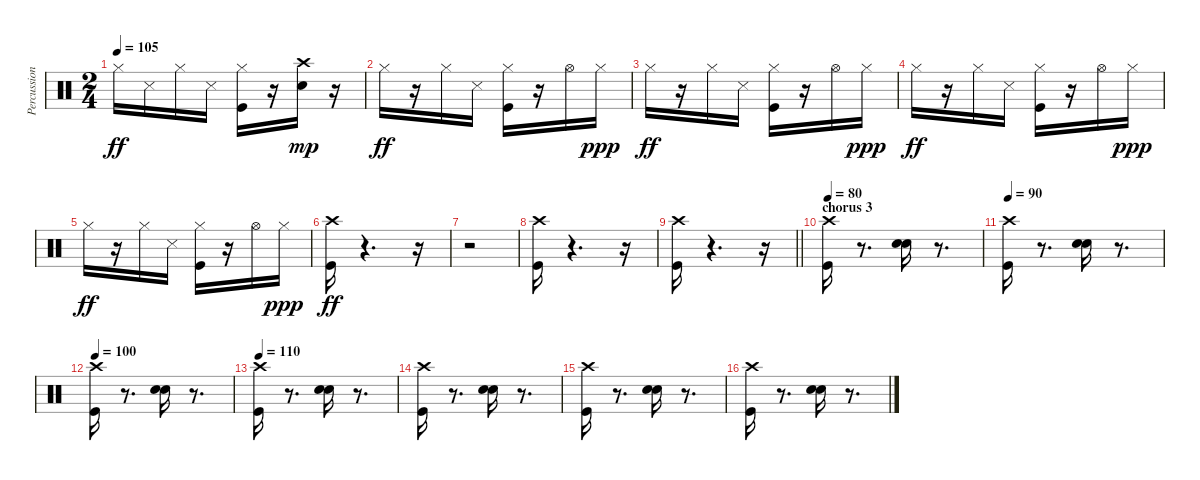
\track ("Percussion" "Percussion") {instrument percussion}
\staff {score}
\articulation defaults
\ts (2 4)
\tempo 105
\clef neutral
\ks c "Hi-Hat (closed)".16{dy ff} "Snare (side stick) 3".16 "Hi-Hat (closed)".16 "Snare (side stick) 3".16
("Kick (hit)" "Hi-Hat (closed)").16 r.16 ("Snare (hit) 2" "Crash high (hit)").16{dy mp} r.16 |
"Hi-Hat (closed)".16{dy ff} r.16 "Hi-Hat (closed)".16 "Snare (side stick) 3".16 ("Kick (hit)" "Hi-Hat (closed)").16 r.16 "Hi-Hat (open)".16 "Hi-Hat (closed)".16{dy ppp} |
"Hi-Hat (closed)".16{dy ff} r.16 "Hi-Hat (closed)".16 "Snare (side stick) 3".16 ("Kick (hit)" "Hi-Hat (closed)").16 r.16 "Hi-Hat (open)".16 "Hi-Hat (closed)".16{dy ppp} |
"Hi-Hat (closed)".16{dy ff} r.16 "Hi-Hat (closed)".16 "Snare (side stick) 3".16 ("Kick (hit)" "Hi-Hat (closed)").16 r.16 "Hi-Hat (open)".16 "Hi-Hat (closed)".16{dy ppp} |
"Hi-Hat (closed)".16{dy ff} r.16 "Hi-Hat (closed)".16 "Snare (side stick) 3".16 ("Kick (hit)" "Hi-Hat (closed)").16 r.16 "Hi-Hat (open)".16 "Hi-Hat (closed)".16{dy ppp} |
("Kick (hit)" "Crash high (hit)").16{dy ff} r.4{d} r.16 |
r.2 |
("Kick (hit)" "Crash high (hit)").16 r.4{d} r.16 |
\barLineRight lightlight
("Kick (hit)" "Crash high (hit)").16 r.4{d} r.16 |
\section ("" "chorus 3")
\tempo 80
("Kick (hit)" "Crash high (hit)").16 r.8{d} ("Snare (hit) 2" "Snare (hit) 2").16 r.8{d} |
\tempo 90
("Kick (hit)" "Crash high (hit)").16 r.8{d} ("Snare (hit) 2" "Snare (hit) 2").16 r.8{d} |
\tempo 100
("Kick (hit)" "Crash high (hit)").16 r.8{d} ("Snare (hit) 2" "Snare (hit) 2").16 r.8{d} |
\tempo 110
("Kick (hit)" "Crash high (hit)").16 r.8{d} ("Snare (hit) 2" "Snare (hit) 2").16 r.8{d} |
("Kick (hit)" "Crash high (hit)").16 r.8{d} ("Snare (hit) 2" "Snare (hit) 2").16 r.8{d} |
("Kick (hit)" "Crash high (hit)").16 r.8{d} ("Snare (hit) 2" "Snare (hit) 2").16 r.8{d} |
("Kick (hit)" "Crash high (hit)").16 r.8{d} ("Snare (hit) 2" "Snare (hit) 2").16 r.8{d}
